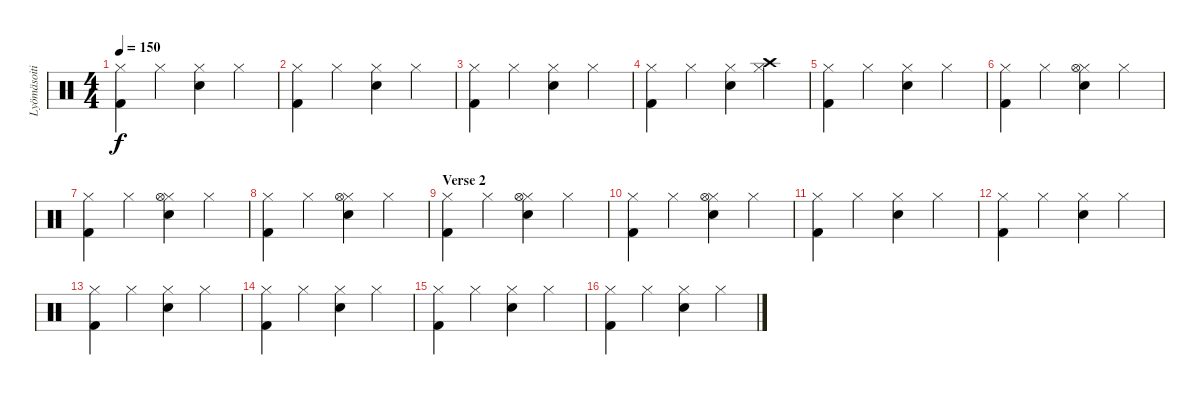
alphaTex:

\track ("Lyömäsoitin" "Lyömäsoiti") {instrument percussion}
\staff {score}
\articulation defaults
\ts (4 4)
\tempo 150
\clef neutral
\ks c
("Hi-Hat (closed)" "Kick (hit) 2").4{dy f} "Hi-Hat (closed)".4 ("Hi-Hat (closed)" "Snare (hit) 2").4 "Hi-Hat (closed)".4 |
("Hi-Hat (closed)" "Kick (hit) 2").4 "Hi-Hat (closed)".4 ("Hi-Hat (closed)" "Snare (hit) 2").4 "Hi-Hat (closed)".4 |
("Hi-Hat (closed)" "Kick (hit) 2").4 "Hi-Hat (closed)".4 ("Hi-Hat (closed)" "Snare (hit) 2").4 "Hi-Hat (closed)".4 |
("Hi-Hat (closed)" "Kick (hit) 2").4 "Hi-Hat (closed)".4 ("Hi-Hat (closed)" "Snare (hit) 2").4 ("Hi-Hat (closed)" "Crash high (hit)").4 |
("Hi-Hat (closed)" "Kick (hit) 2").4 "Hi-Hat (closed)".4 ("Hi-Hat (closed)" "Snare (hit) 2").4 "Hi-Hat (closed)".4 |
("Hi-Hat (closed)" "Kick (hit) 2").4 "Hi-Hat (closed)".4 ("Hi-Hat (closed)" "Snare (hit) 2" "Hi-Hat (open)").4 "Hi-Hat (closed)".4 |
("Hi-Hat (closed)" "Kick (hit) 2").4 "Hi-Hat (closed)".4 ("Hi-Hat (closed)" "Snare (hit) 2" "Hi-Hat (open)").4 "Hi-Hat (closed)".4 |
("Hi-Hat (closed)" "Kick (hit) 2").4 "Hi-Hat (closed)".4 ("Hi-Hat (closed)" "Snare (hit) 2" "Hi-Hat (open)").4 "Hi-Hat (closed)".4 |
\section ("" "Verse 2")
("Hi-Hat (closed)" "Kick (hit) 2").4 "Hi-Hat (closed)".4 ("Hi-Hat (closed)" "Snare (hit) 2" "Hi-Hat (open)").4 "Hi-Hat (closed)".4 |
("Hi-Hat (closed)" "Kick (hit) 2").4 "Hi-Hat (closed)".4 ("Hi-Hat (closed)" "Snare (hit) 2" "Hi-Hat (open)").4 "Hi-Hat (closed)".4 |
("Hi-Hat (closed)" "Kick (hit) 2").4 "Hi-Hat (closed)".4 ("Hi-Hat (closed)" "Snare (hit) 2").4 "Hi-Hat (closed)".4 |
("Hi-Hat (closed)" "Kick (hit) 2").4 "Hi-Hat (closed)".4 ("Hi-Hat (closed)" "Snare (hit) 2").4 "Hi-Hat (closed)".4 |
("Hi-Hat (closed)" "Kick (hit) 2").4 "Hi-Hat (closed)".4 ("Hi-Hat (closed)" "Snare (hit) 2").4 "Hi-Hat (closed)".4 |
("Hi-Hat (closed)" "Kick (hit) 2").4 "Hi-Hat (closed)".4 ("Hi-Hat (closed)" "Snare (hit) 2").4 "Hi-Hat (closed)".4 |
("Hi-Hat (closed)" "Kick (hit) 2").4 "Hi-Hat (closed)".4 ("Hi-Hat (closed)" "Snare (hit) 2").4 "Hi-Hat (closed)".4 |
("Hi-Hat (closed)" "Kick (hit) 2").4 "Hi-Hat (closed)".4 ("Hi-Hat (closed)" "Snare (hit) 2").4 "Hi-Hat (closed)".4
